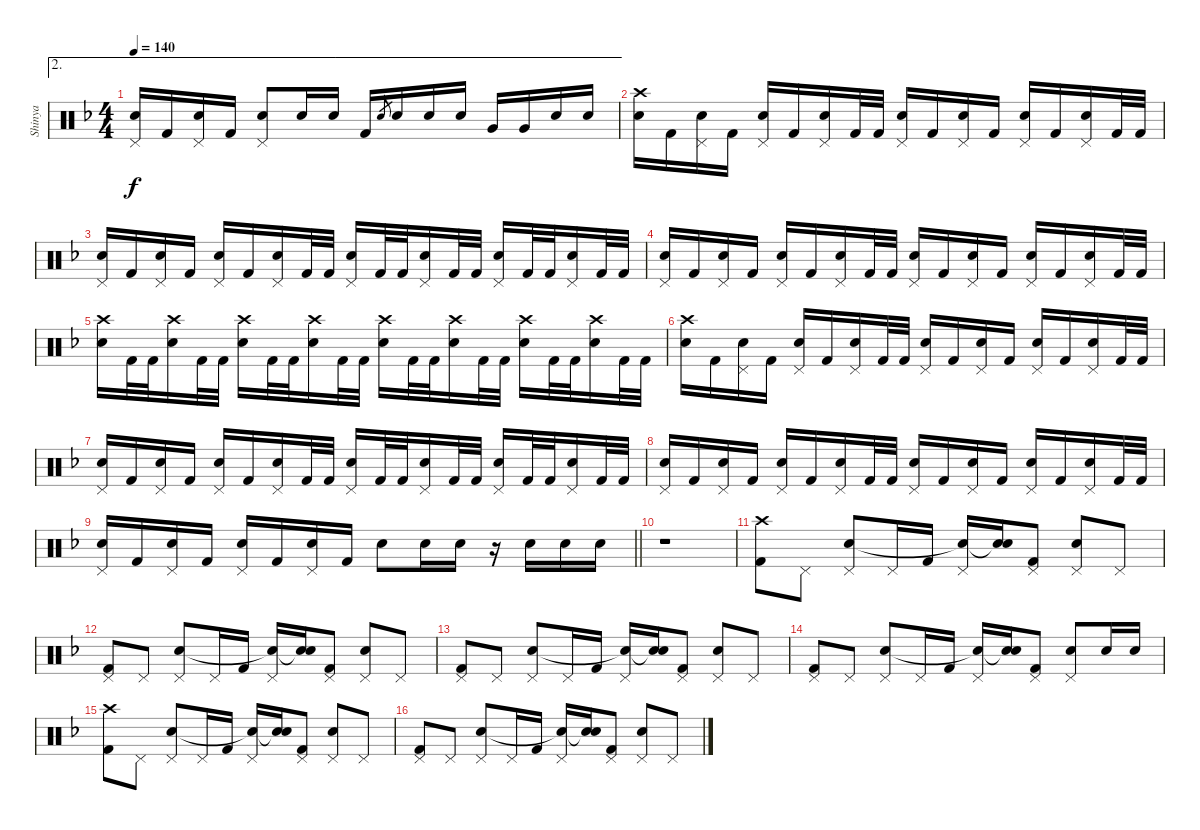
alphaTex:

\track ("Shinya" "Shinya") {instrument percussion}
\staff {score}
\articulation defaults
\ae 2
\ts (4 4)
\tempo 140
\clef neutral
\ks dminor
("Pedal Hi-Hat (hit)" "Electric Snare (hit)").16{dy f} "Kick (hit) 2".16 ("Pedal Hi-Hat (hit)" "Electric Snare (hit)").16 "Kick (hit) 2".16 ("Pedal Hi-Hat (hit)" "Electric Snare (hit)").8 "Electric Snare (hit)".16 "Electric Snare (hit)".16 "Kick (hit) 2".16 "Electric Snare (hit)".8{gr} "Electric Snare (hit)".16 "Electric Snare (hit)".16 "Electric Snare (hit)".16 "Very Low Tom (hit)".16 "Very Low Tom (hit)".16 "Electric Snare (hit)".16 "Electric Snare (hit)".16 |
("Crash high (hit)" "Electric Snare (hit)").16 "Kick (hit) 2".16 ("Pedal Hi-Hat (hit)" "Electric Snare (hit)").16 "Kick (hit) 2".16 ("Pedal Hi-Hat (hit)" "Electric Snare (hit)").16 "Kick (hit) 2".16 ("Pedal Hi-Hat (hit)" "Electric Snare (hit)").16 "Kick (hit) 2".32 "Kick (hit) 2".32 ("Pedal Hi-Hat (hit)" "Electric Snare (hit)").16 "Kick (hit) 2".16 ("Pedal Hi-Hat (hit)" "Electric Snare (hit)").16 "Kick (hit) 2".16 ("Pedal Hi-Hat (hit)" "Electric Snare (hit)").16 "Kick (hit) 2".16 ("Pedal Hi-Hat (hit)" "Electric Snare (hit)").16 "Kick (hit) 2".32 "Kick (hit) 2".32 |
("Pedal Hi-Hat (hit)" "Electric Snare (hit)").16 "Kick (hit) 2".16 ("Pedal Hi-Hat (hit)" "Electric Snare (hit)").16 "Kick (hit) 2".16 ("Pedal Hi-Hat (hit)" "Electric Snare (hit)").16 "Kick (hit) 2".16 ("Pedal Hi-Hat (hit)" "Electric Snare (hit)").16 "Kick (hit) 2".32 "Kick (hit) 2".32 ("Pedal Hi-Hat (hit)" "Electric Snare (hit)").16 "Kick (hit) 2".32 "Kick (hit) 2".32 ("Pedal Hi-Hat (hit)" "Electric Snare (hit)").16 "Kick (hit) 2".32 "Kick (hit) 2".32 ("Pedal Hi-Hat (hit)" "Electric Snare (hit)").16 "Kick (hit) 2".32 "Kick (hit) 2".32 ("Pedal Hi-Hat (hit)" "Electric Snare (hit)").16 "Kick (hit) 2".32 "Kick (hit) 2".32 |
("Pedal Hi-Hat (hit)" "Electric Snare (hit)").16 "Kick (hit) 2".16 ("Pedal Hi-Hat (hit)" "Electric Snare (hit)").16 "Kick (hit) 2".16 ("Pedal Hi-Hat (hit)" "Electric Snare (hit)").16 "Kick (hit) 2".16 ("Pedal Hi-Hat (hit)" "Electric Snare (hit)").16 "Kick (hit) 2".32 "Kick (hit) 2".32 ("Pedal Hi-Hat (hit)" "Electric Snare (hit)").16 "Kick (hit) 2".16 ("Pedal Hi-Hat (hit)" "Electric Snare (hit)").16 "Kick (hit) 2".16 ("Pedal Hi-Hat (hit)" "Electric Snare (hit)").16 "Kick (hit) 2".16 ("Pedal Hi-Hat (hit)" "Electric Snare (hit)").16 "Kick (hit) 2".32 "Kick (hit) 2".32 |
("Crash high (hit)" "Electric Snare (hit)").16 "Kick (hit) 2".32 "Kick (hit) 2".32 ("Crash high (hit)" "Electric Snare (hit)").16 "Kick (hit) 2".32 "Kick (hit) 2".32 ("Crash high (hit)" "Electric Snare (hit)").16 "Kick (hit) 2".32 "Kick (hit) 2".32 ("Crash high (hit)" "Electric Snare (hit)").16 "Kick (hit) 2".32 "Kick (hit) 2".32 ("Crash high (hit)" "Electric Snare (hit)").16 "Kick (hit) 2".32 "Kick (hit) 2".32 ("Crash high (hit)" "Electric Snare (hit)").16 "Kick (hit) 2".32 "Kick (hit) 2".32 ("Crash high (hit)" "Electric Snare (hit)").16 "Kick (hit) 2".32 "Kick (hit) 2".32 ("Crash high (hit)" "Electric Snare (hit)").16 "Kick (hit) 2".32 "Kick (hit) 2".32 |
("Crash high (hit)" "Electric Snare (hit)").16 "Kick (hit) 2".16 ("Pedal Hi-Hat (hit)" "Electric Snare (hit)").16 "Kick (hit) 2".16 ("Pedal Hi-Hat (hit)" "Electric Snare (hit)").16 "Kick (hit) 2".16 ("Pedal Hi-Hat (hit)" "Electric Snare (hit)").16 "Kick (hit) 2".32 "Kick (hit) 2".32 ("Pedal Hi-Hat (hit)" "Electric Snare (hit)").16 "Kick (hit) 2".16 ("Pedal Hi-Hat (hit)" "Electric Snare (hit)").16 "Kick (hit) 2".16 ("Pedal Hi-Hat (hit)" "Electric Snare (hit)").16 "Kick (hit) 2".16 ("Pedal Hi-Hat (hit)" "Electric Snare (hit)").16 "Kick (hit) 2".32 "Kick (hit) 2".32 |
("Pedal Hi-Hat (hit)" "Electric Snare (hit)").16 "Kick (hit) 2".16 ("Pedal Hi-Hat (hit)" "Electric Snare (hit)").16 "Kick (hit) 2".16 ("Pedal Hi-Hat (hit)" "Electric Snare (hit)").16 "Kick (hit) 2".16 ("Pedal Hi-Hat (hit)" "Electric Snare (hit)").16 "Kick (hit) 2".32 "Kick (hit) 2".32 ("Pedal Hi-Hat (hit)" "Electric Snare (hit)").16 "Kick (hit) 2".32 "Kick (hit) 2".32 ("Pedal Hi-Hat (hit)" "Electric Snare (hit)").16 "Kick (hit) 2".32 "Kick (hit) 2".32 ("Pedal Hi-Hat (hit)" "Electric Snare (hit)").16 "Kick (hit) 2".32 "Kick (hit) 2".32 ("Pedal Hi-Hat (hit)" "Electric Snare (hit)").16 "Kick (hit) 2".32 "Kick (hit) 2".32 |
("Pedal Hi-Hat (hit)" "Electric Snare (hit)").16 "Kick (hit) 2".16 ("Pedal Hi-Hat (hit)" "Electric Snare (hit)").16 "Kick (hit) 2".16 ("Pedal Hi-Hat (hit)" "Electric Snare (hit)").16 "Kick (hit) 2".16 ("Pedal Hi-Hat (hit)" "Electric Snare (hit)").16 "Kick (hit) 2".32 "Kick (hit) 2".32 ("Pedal Hi-Hat (hit)" "Electric Snare (hit)").16 "Kick (hit) 2".16 ("Pedal Hi-Hat (hit)" "Electric Snare (hit)").16 "Kick (hit) 2".16 ("Pedal Hi-Hat (hit)" "Electric Snare (hit)").16 "Kick (hit) 2".16 ("Pedal Hi-Hat (hit)" "Electric Snare (hit)").16 "Kick (hit) 2".32 "Kick (hit) 2".32 |
\barLineRight lightlight
("Pedal Hi-Hat (hit)" "Electric Snare (hit)").16 "Kick (hit) 2".16 ("Pedal Hi-Hat (hit)" "Electric Snare (hit)").16 "Kick (hit) 2".16 ("Pedal Hi-Hat (hit)" "Electric Snare (hit)").16 "Kick (hit) 2".16 ("Pedal Hi-Hat (hit)" "Electric Snare (hit)").16 "Kick (hit) 2".16 "Electric Snare (hit)".8 "Electric Snare (hit)".16 "Electric Snare (hit)".16 r.16 "Electric Snare (hit)".16 "Electric Snare (hit)".16 "Electric Snare (hit)".16 |
r.1 |
("Crash high (hit)" "Kick (hit) 2").8 "Pedal Hi-Hat (hit)".8 ("Pedal Hi-Hat (hit)" "Electric Snare (hit)").8 "Pedal Hi-Hat (hit)".16 "Kick (hit) 2".16 ("Pedal Hi-Hat (hit)" "Snare (hit)"{t}).16 ("Electric Snare (hit)" "Snare (hit)"{t}).16 ("Pedal Hi-Hat (hit)" "Kick (hit) 2").8 ("Pedal Hi-Hat (hit)" "Electric Snare (hit)").8 "Pedal Hi-Hat (hit)".8 |
("Pedal Hi-Hat (hit)" "Kick (hit) 2").8 "Pedal Hi-Hat (hit)".8 ("Pedal Hi-Hat (hit)" "Electric Snare (hit)").8 "Pedal Hi-Hat (hit)".16 "Kick (hit) 2".16 ("Pedal Hi-Hat (hit)" "Snare (hit)"{t}).16 ("Electric Snare (hit)" "Snare (hit)"{t}).16 ("Pedal Hi-Hat (hit)" "Kick (hit) 2").8 ("Pedal Hi-Hat (hit)" "Electric Snare (hit)").8 "Pedal Hi-Hat (hit)".8 |
("Pedal Hi-Hat (hit)" "Kick (hit) 2").8 "Pedal Hi-Hat (hit)".8 ("Pedal Hi-Hat (hit)" "Electric Snare (hit)").8 "Pedal Hi-Hat (hit)".16 "Kick (hit) 2".16 ("Pedal Hi-Hat (hit)" "Snare (hit)"{t}).16 ("Electric Snare (hit)" "Snare (hit)"{t}).16 ("Pedal Hi-Hat (hit)" "Kick (hit) 2").8 ("Pedal Hi-Hat (hit)" "Electric Snare (hit)").8 "Pedal Hi-Hat (hit)".8 |
("Pedal Hi-Hat (hit)" "Kick (hit) 2").8 "Pedal Hi-Hat (hit)".8 ("Pedal Hi-Hat (hit)" "Electric Snare (hit)").8 "Pedal Hi-Hat (hit)".16 "Kick (hit) 2".16 ("Pedal Hi-Hat (hit)" "Snare (hit)"{t}).16 ("Electric Snare (hit)" "Snare (hit)"{t}).16 ("Pedal Hi-Hat (hit)" "Kick (hit) 2").8 ("Pedal Hi-Hat (hit)" "Electric Snare (hit)").8 "Electric Snare (hit)".16 "Electric Snare (hit)".16 |
("Crash high (hit)" "Kick (hit) 2").8 "Pedal Hi-Hat (hit)".8 ("Pedal Hi-Hat (hit)" "Electric Snare (hit)").8 "Pedal Hi-Hat (hit)".16 "Kick (hit) 2".16 ("Pedal Hi-Hat (hit)" "Snare (hit)"{t}).16 ("Electric Snare (hit)" "Snare (hit)"{t}).16 ("Pedal Hi-Hat (hit)" "Kick (hit) 2").8 ("Pedal Hi-Hat (hit)" "Electric Snare (hit)").8 "Pedal Hi-Hat (hit)".8 |
("Pedal Hi-Hat (hit)" "Kick (hit) 2").8 "Pedal Hi-Hat (hit)".8 ("Pedal Hi-Hat (hit)" "Electric Snare (hit)").8 "Pedal Hi-Hat (hit)".16 "Kick (hit) 2".16 ("Pedal Hi-Hat (hit)" "Snare (hit)"{t}).16 ("Electric Snare (hit)" "Snare (hit)"{t}).16 ("Pedal Hi-Hat (hit)" "Kick (hit) 2").8 ("Pedal Hi-Hat (hit)" "Electric Snare (hit)").8 "Pedal Hi-Hat (hit)".8
